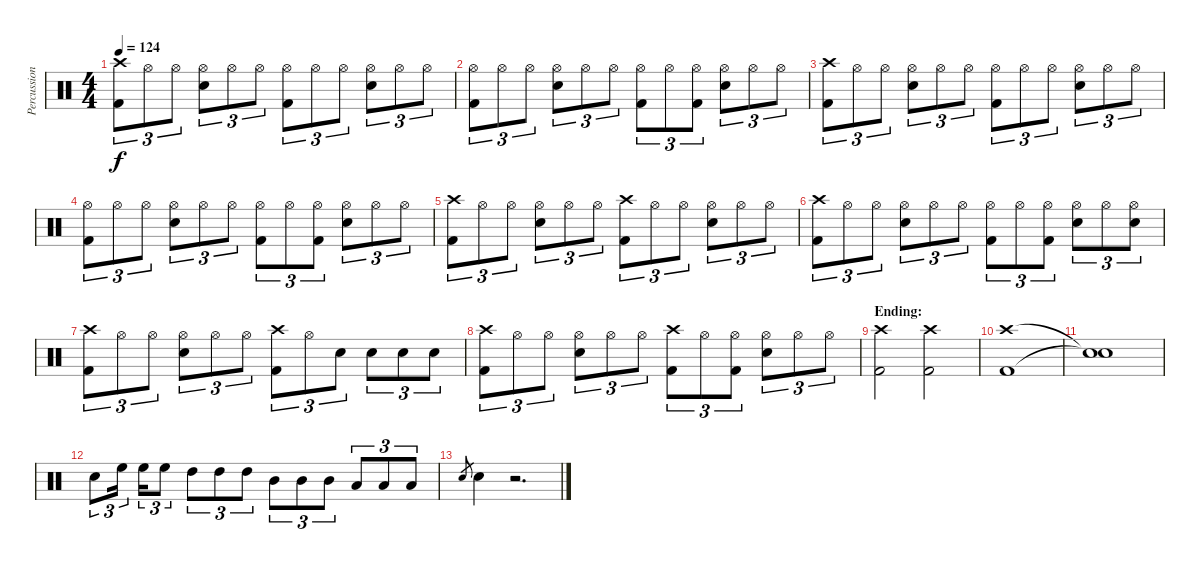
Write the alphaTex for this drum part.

\track ("Percussion" "Percussion") {instrument percussion}
\staff {score}
\articulation defaults
\ts (4 4)
\tempo 124
\clef neutral
\ks c
("Crash high (hit)" "Kick (hit) 2").8{tu (3 2) dy f} "Hi-Hat (open)".8{tu (3 2)} "Hi-Hat (open)".8{tu (3 2)} ("Hi-Hat (open)" "Snare (hit) 2").8{tu (3 2)} "Hi-Hat (open)".8{tu (3 2)} "Hi-Hat (open)".8{tu (3 2)} ("Hi-Hat (open)" "Kick (hit) 2").8{tu (3 2)} "Hi-Hat (open)".8{tu (3 2)} "Hi-Hat (open)".8{tu (3 2)} ("Hi-Hat (open)" "Snare (hit) 2").8{tu (3 2)} "Hi-Hat (open)".8{tu (3 2)} "Hi-Hat (open)".8{tu (3 2)} |
("Hi-Hat (open)" "Kick (hit) 2").8{tu (3 2)} "Hi-Hat (open)".8{tu (3 2)} "Hi-Hat (open)".8{tu (3 2)} ("Hi-Hat (open)" "Snare (hit) 2").8{tu (3 2)} "Hi-Hat (open)".8{tu (3 2)} "Hi-Hat (open)".8{tu (3 2)} ("Hi-Hat (open)" "Kick (hit) 2").8{tu (3 2)} "Hi-Hat (open)".8{tu (3 2)} ("Hi-Hat (open)" "Kick (hit) 2").8{tu (3 2)} ("Hi-Hat (open)" "Snare (hit) 2").8{tu (3 2)} "Hi-Hat (open)".8{tu (3 2)} "Hi-Hat (open)".8{tu (3 2)} |
("Crash high (hit)" "Kick (hit) 2").8{tu (3 2)} "Hi-Hat (open)".8{tu (3 2)} "Hi-Hat (open)".8{tu (3 2)} ("Hi-Hat (open)" "Snare (hit) 2").8{tu (3 2)} "Hi-Hat (open)".8{tu (3 2)} "Hi-Hat (open)".8{tu (3 2)} ("Hi-Hat (open)" "Kick (hit) 2").8{tu (3 2)} "Hi-Hat (open)".8{tu (3 2)} "Hi-Hat (open)".8{tu (3 2)} ("Hi-Hat (open)" "Snare (hit) 2").8{tu (3 2)} "Hi-Hat (open)".8{tu (3 2)} "Hi-Hat (open)".8{tu (3 2)} |
("Hi-Hat (open)" "Kick (hit) 2").8{tu (3 2)} "Hi-Hat (open)".8{tu (3 2)} "Hi-Hat (open)".8{tu (3 2)} ("Hi-Hat (open)" "Snare (hit) 2").8{tu (3 2)} "Hi-Hat (open)".8{tu (3 2)} "Hi-Hat (open)".8{tu (3 2)} ("Hi-Hat (open)" "Kick (hit) 2").8{tu (3 2)} "Hi-Hat (open)".8{tu (3 2)} ("Hi-Hat (open)" "Kick (hit) 2").8{tu (3 2)} ("Hi-Hat (open)" "Snare (hit) 2").8{tu (3 2)} "Hi-Hat (open)".8{tu (3 2)} "Hi-Hat (open)".8{tu (3 2)} |
("Crash high (hit)" "Kick (hit) 2").8{tu (3 2)} "Hi-Hat (open)".8{tu (3 2)} "Hi-Hat (open)".8{tu (3 2)} ("Hi-Hat (open)" "Snare (hit) 2").8{tu (3 2)} "Hi-Hat (open)".8{tu (3 2)} "Hi-Hat (open)".8{tu (3 2)} ("Crash high (hit)" "Kick (hit) 2").8{tu (3 2)} "Hi-Hat (open)".8{tu (3 2)} "Hi-Hat (open)".8{tu (3 2)} ("Hi-Hat (open)" "Snare (hit) 2").8{tu (3 2)} "Hi-Hat (open)".8{tu (3 2)} "Hi-Hat (open)".8{tu (3 2)} |
("Crash high (hit)" "Kick (hit) 2").8{tu (3 2)} "Hi-Hat (open)".8{tu (3 2)} "Hi-Hat (open)".8{tu (3 2)} ("Hi-Hat (open)" "Snare (hit) 2").8{tu (3 2)} "Hi-Hat (open)".8{tu (3 2)} "Hi-Hat (open)".8{tu (3 2)} ("Hi-Hat (open)" "Kick (hit) 2").8{tu (3 2)} "Hi-Hat (open)".8{tu (3 2)} ("Hi-Hat (open)" "Kick (hit) 2").8{tu (3 2)} ("Hi-Hat (open)" "Snare (hit) 2").8{tu (3 2)} "Hi-Hat (open)".8{tu (3 2)} ("Hi-Hat (open)" "Snare (hit) 2").8{tu (3 2)} |
("Crash high (hit)" "Kick (hit) 2").8{tu (3 2)} "Hi-Hat (open)".8{tu (3 2)} "Hi-Hat (open)".8{tu (3 2)} ("Hi-Hat (open)" "Snare (hit) 2").8{tu (3 2)} "Hi-Hat (open)".8{tu (3 2)} "Hi-Hat (open)".8{tu (3 2)} ("Crash high (hit)" "Kick (hit) 2").8{tu (3 2)} "Hi-Hat (open)".8{tu (3 2)} "Snare (hit) 2".8{tu (3 2)} "Snare (hit) 2".8{tu (3 2)} "Snare (hit) 2".8{tu (3 2)} "Snare (hit) 2".8{tu (3 2)} |
("Crash high (hit)" "Kick (hit) 2").8{tu (3 2)} "Hi-Hat (open)".8{tu (3 2)} "Hi-Hat (open)".8{tu (3 2)} ("Hi-Hat (open)" "Snare (hit) 2").8{tu (3 2)} "Hi-Hat (open)".8{tu (3 2)} "Hi-Hat (open)".8{tu (3 2)} ("Crash high (hit)" "Kick (hit) 2").8{tu (3 2)} "Hi-Hat (open)".8{tu (3 2)} ("Hi-Hat (open)" "Kick (hit) 2").8{tu (3 2)} ("Hi-Hat (open)" "Snare (hit) 2").8{tu (3 2)} "Hi-Hat (open)".8{tu (3 2)} "Hi-Hat (open)".8{tu (3 2)} |
\section ("" "Ending:")
("Crash high (hit)" "Kick (hit) 2").2 ("Crash high (hit)" "Kick (hit) 2").2 |
("Crash high (hit)" "Kick (hit) 2").1 |
("Snare (hit)"{t} "Snare (hit)"{t}).1 |
"Snare (hit) 2".8{tu (3 2)} "High Floor Tom (hit)".16{tu (3 2)} "High Floor Tom (hit)".16{tu (3 2)} "High Floor Tom (hit)".8{tu (3 2)} "High Tom (hit)".8{tu (3 2)} "High Tom (hit)".8{tu (3 2)} "High Tom (hit)".8{tu (3 2)} "Mid Tom (hit)".8{tu (3 2)} "Mid Tom (hit)".8{tu (3 2)} "Mid Tom (hit)".8{tu (3 2)} "Low Tom (hit)".8{tu (3 2)} "Low Tom (hit)".8{tu (3 2)} "Low Tom (hit)".8{tu (3 2)} |
"Snare (hit) 2".8{gr} "Snare (hit) 2".4 r.2{d}
